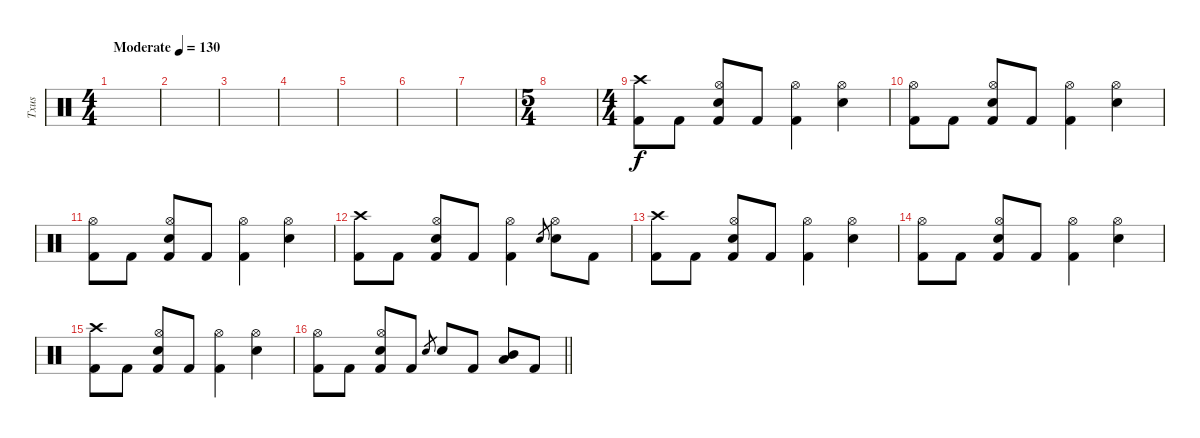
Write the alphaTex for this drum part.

\track ("Txus" "Txus") {instrument percussion}
\staff {score}
\articulation defaults
\ts (4 4)
\tempo (130 "Moderate")
\clef neutral
\ks c
|
|
|
|
|
|
|
\ts (5 4)
|
\ts (4 4)
("Crash high (hit)" "Kick (hit) 2").8 "Kick (hit) 2".8 ("Hi-Hat (open)" "Electric Snare (hit)" "Kick (hit) 2").8 "Kick (hit) 2".8 ("Hi-Hat (open)" "Kick (hit) 2").4 ("Hi-Hat (open)" "Electric Snare (hit)").4 |
("Hi-Hat (open)" "Kick (hit) 2").8 "Kick (hit) 2".8 ("Hi-Hat (open)" "Electric Snare (hit)" "Kick (hit) 2").8 "Kick (hit) 2".8 ("Hi-Hat (open)" "Kick (hit) 2").4 ("Hi-Hat (open)" "Electric Snare (hit)").4 |
("Hi-Hat (open)" "Kick (hit) 2").8 "Kick (hit) 2".8 ("Hi-Hat (open)" "Electric Snare (hit)" "Kick (hit) 2").8 "Kick (hit) 2".8 ("Hi-Hat (open)" "Kick (hit) 2").4 ("Hi-Hat (open)" "Electric Snare (hit)").4 |
("Crash high (hit)" "Kick (hit) 2").8 "Kick (hit) 2".8 ("Hi-Hat (open)" "Electric Snare (hit)" "Kick (hit) 2").8 "Kick (hit) 2".8 ("Hi-Hat (open)" "Kick (hit) 2").4 "Electric Snare (hit)".8{gr} ("Hi-Hat (open)" "Electric Snare (hit)").8 "Kick (hit) 2".8 |
("Crash high (hit)" "Kick (hit) 2").8 "Kick (hit) 2".8 ("Hi-Hat (open)" "Electric Snare (hit)" "Kick (hit) 2").8 "Kick (hit) 2".8 ("Hi-Hat (open)" "Kick (hit) 2").4 ("Hi-Hat (open)" "Electric Snare (hit)").4 |
("Hi-Hat (open)" "Kick (hit) 2").8 "Kick (hit) 2".8 ("Hi-Hat (open)" "Electric Snare (hit)" "Kick (hit) 2").8 "Kick (hit) 2".8 ("Hi-Hat (open)" "Kick (hit) 2").4 ("Hi-Hat (open)" "Electric Snare (hit)").4 |
("Crash high (hit)" "Kick (hit) 2").8 "Kick (hit) 2".8 ("Hi-Hat (open)" "Electric Snare (hit)" "Kick (hit) 2").8 "Kick (hit) 2".8 ("Hi-Hat (open)" "Kick (hit) 2").4 ("Hi-Hat (open)" "Electric Snare (hit)").4 |
\barLineRight lightlight
("Hi-Hat (open)" "Kick (hit) 2").8 "Kick (hit) 2".8 ("Hi-Hat (open)" "Electric Snare (hit)" "Kick (hit) 2").8 "Kick (hit) 2".8 "Electric Snare (hit)".8{gr} "Electric Snare (hit)".8 "Kick (hit) 2".8 ("Low Tom (hit)" "Mid Tom (hit)").8 "Kick (hit) 2".8
